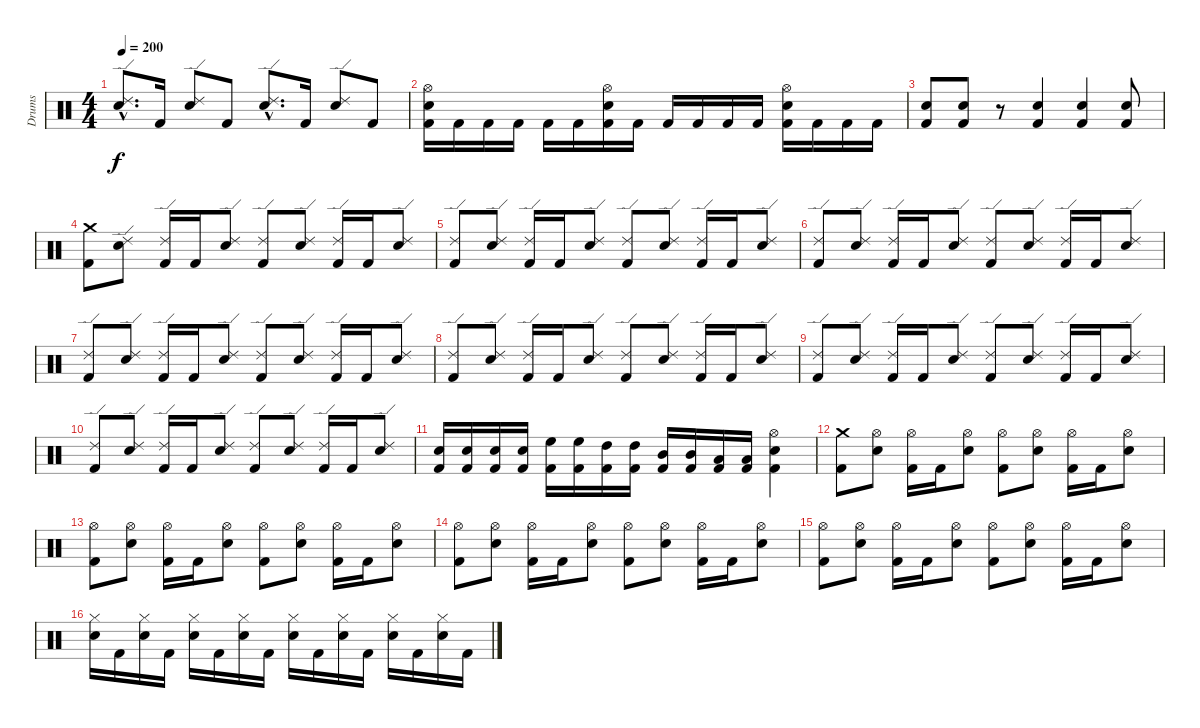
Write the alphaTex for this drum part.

\track ("Drums" "Drums") {instrument percussion}
\staff {score}
\articulation defaults
\ts (4 4)
\tempo 200
\clef neutral
\ks c
("Snare (hit) 2"{hac} "Ride (edge) 2"{hac}).8{d dy f} "Kick (hit) 2".16 ("Snare (hit) 2" "Ride (edge) 2").8 "Kick (hit) 2".8 ("Snare (hit) 2"{hac} "Ride (edge) 2"{hac}).8{d} "Kick (hit) 2".16 ("Snare (hit) 2" "Ride (edge) 2").8 "Kick (hit) 2".8 |
("Kick (hit) 2" "Snare (hit) 2" "Hi-Hat (open)").16 "Kick (hit) 2".16 "Kick (hit) 2".16 "Kick (hit) 2".16 "Kick (hit) 2".16 "Kick (hit) 2".16 ("Kick (hit) 2" "Snare (hit) 2" "Hi-Hat (open)").16 "Kick (hit) 2".16 "Kick (hit) 2".16 "Kick (hit) 2".16 "Kick (hit) 2".16 "Kick (hit) 2".16 ("Kick (hit) 2" "Snare (hit) 2" "Hi-Hat (open)").16 "Kick (hit) 2".16 "Kick (hit) 2".16 "Kick (hit) 2".16 |
("Kick (hit) 2" "Snare (hit) 2").8 ("Kick (hit) 2" "Snare (hit) 2").8 r.8 ("Kick (hit) 2" "Snare (hit) 2").4 ("Kick (hit) 2" "Snare (hit) 2").4 ("Kick (hit) 2" "Snare (hit) 2").8 |
\section ("" "")
("Kick (hit) 2" "Crash medium (hit)").8 ("Snare (hit) 2" "Ride (edge) 2").8 ("Kick (hit) 2" "Ride (edge) 2").16 "Kick (hit) 2".16 ("Snare (hit) 2" "Ride (edge) 2").8 ("Kick (hit) 2" "Ride (edge) 2").8 ("Snare (hit) 2" "Ride (edge) 2").8 ("Kick (hit) 2" "Ride (edge) 2").16 "Kick (hit) 2".16 ("Snare (hit) 2" "Ride (edge) 2").8 |
("Kick (hit) 2" "Ride (edge) 2").8 ("Snare (hit) 2" "Ride (edge) 2").8 ("Kick (hit) 2" "Ride (edge) 2").16 "Kick (hit) 2".16 ("Snare (hit) 2" "Ride (edge) 2").8 ("Kick (hit) 2" "Ride (edge) 2").8 ("Snare (hit) 2" "Ride (edge) 2").8 ("Kick (hit) 2" "Ride (edge) 2").16 "Kick (hit) 2".16 ("Snare (hit) 2" "Ride (edge) 2").8 |
("Kick (hit) 2" "Ride (edge) 2").8 ("Snare (hit) 2" "Ride (edge) 2").8 ("Kick (hit) 2" "Ride (edge) 2").16 "Kick (hit) 2".16 ("Snare (hit) 2" "Ride (edge) 2").8 ("Kick (hit) 2" "Ride (edge) 2").8 ("Snare (hit) 2" "Ride (edge) 2").8 ("Kick (hit) 2" "Ride (edge) 2").16 "Kick (hit) 2".16 ("Snare (hit) 2" "Ride (edge) 2").8 |
("Kick (hit) 2" "Ride (edge) 2").8 ("Snare (hit) 2" "Ride (edge) 2").8 ("Kick (hit) 2" "Ride (edge) 2").16 "Kick (hit) 2".16 ("Snare (hit) 2" "Ride (edge) 2").8 ("Kick (hit) 2" "Ride (edge) 2").8 ("Snare (hit) 2" "Ride (edge) 2").8 ("Kick (hit) 2" "Ride (edge) 2").16 "Kick (hit) 2".16 ("Snare (hit) 2" "Ride (edge) 2").8 |
("Kick (hit) 2" "Ride (edge) 2").8 ("Snare (hit) 2" "Ride (edge) 2").8 ("Kick (hit) 2" "Ride (edge) 2").16 "Kick (hit) 2".16 ("Snare (hit) 2" "Ride (edge) 2").8 ("Kick (hit) 2" "Ride (edge) 2").8 ("Snare (hit) 2" "Ride (edge) 2").8 ("Kick (hit) 2" "Ride (edge) 2").16 "Kick (hit) 2".16 ("Snare (hit) 2" "Ride (edge) 2").8 |
("Kick (hit) 2" "Ride (edge) 2").8 ("Snare (hit) 2" "Ride (edge) 2").8 ("Kick (hit) 2" "Ride (edge) 2").16 "Kick (hit) 2".16 ("Snare (hit) 2" "Ride (edge) 2").8 ("Kick (hit) 2" "Ride (edge) 2").8 ("Snare (hit) 2" "Ride (edge) 2").8 ("Kick (hit) 2" "Ride (edge) 2").16 "Kick (hit) 2".16 ("Snare (hit) 2" "Ride (edge) 2").8 |
("Kick (hit) 2" "Ride (edge) 2").8 ("Snare (hit) 2" "Ride (edge) 2").8 ("Kick (hit) 2" "Ride (edge) 2").16 "Kick (hit) 2".16 ("Snare (hit) 2" "Ride (edge) 2").8 ("Kick (hit) 2" "Ride (edge) 2").8 ("Snare (hit) 2" "Ride (edge) 2").8 ("Kick (hit) 2" "Ride (edge) 2").16 "Kick (hit) 2".16 ("Snare (hit) 2" "Ride (edge) 2").8 |
("Kick (hit) 2" "Snare (hit) 2").16 ("Kick (hit) 2" "Snare (hit) 2").16 ("Kick (hit) 2" "Snare (hit) 2").16 ("Kick (hit) 2" "Snare (hit) 2").16 ("Kick (hit) 2" "High Floor Tom (hit)").16 ("Kick (hit) 2" "High Floor Tom (hit)").16 ("Kick (hit) 2" "High Tom (hit)").16 ("Kick (hit) 2" "High Tom (hit)").16 ("Kick (hit) 2" "Mid Tom (hit)").16 ("Kick (hit) 2" "Mid Tom (hit)").16 ("Kick (hit) 2" "Low Tom (hit)").16 ("Kick (hit) 2" "Low Tom (hit)").16 ("Kick (hit) 2" "Snare (hit) 2" "Hi-Hat (open)").4 |
("Kick (hit) 2" "Crash medium (hit)").8 ("Snare (hit) 2" "Hi-Hat (open)").8 ("Kick (hit) 2" "Hi-Hat (open)").16 "Kick (hit) 2".16 ("Snare (hit) 2" "Hi-Hat (open)").8 ("Kick (hit) 2" "Hi-Hat (open)").8 ("Snare (hit) 2" "Hi-Hat (open)").8 ("Kick (hit) 2" "Hi-Hat (open)").16 "Kick (hit) 2".16 ("Snare (hit) 2" "Hi-Hat (open)").8 |
("Kick (hit) 2" "Hi-Hat (open)").8 ("Snare (hit) 2" "Hi-Hat (open)").8 ("Kick (hit) 2" "Hi-Hat (open)").16 "Kick (hit) 2".16 ("Snare (hit) 2" "Hi-Hat (open)").8 ("Kick (hit) 2" "Hi-Hat (open)").8 ("Snare (hit) 2" "Hi-Hat (open)").8 ("Kick (hit) 2" "Hi-Hat (open)").16 "Kick (hit) 2".16 ("Snare (hit) 2" "Hi-Hat (open)").8 |
("Kick (hit) 2" "Hi-Hat (open)").8 ("Snare (hit) 2" "Hi-Hat (open)").8 ("Kick (hit) 2" "Hi-Hat (open)").16 "Kick (hit) 2".16 ("Snare (hit) 2" "Hi-Hat (open)").8 ("Kick (hit) 2" "Hi-Hat (open)").8 ("Snare (hit) 2" "Hi-Hat (open)").8 ("Kick (hit) 2" "Hi-Hat (open)").16 "Kick (hit) 2".16 ("Snare (hit) 2" "Hi-Hat (open)").8 |
("Kick (hit) 2" "Hi-Hat (open)").8 ("Snare (hit) 2" "Hi-Hat (open)").8 ("Kick (hit) 2" "Hi-Hat (open)").16 "Kick (hit) 2".16 ("Snare (hit) 2" "Hi-Hat (open)").8 ("Kick (hit) 2" "Hi-Hat (open)").8 ("Snare (hit) 2" "Hi-Hat (open)").8 ("Kick (hit) 2" "Hi-Hat (open)").16 "Kick (hit) 2".16 ("Snare (hit) 2" "Hi-Hat (open)").8 |
("Snare (hit) 2" "Hi-Hat (closed)").16 "Kick (hit) 2".16 ("Snare (hit) 2" "Hi-Hat (closed)").16 "Kick (hit) 2".16 ("Snare (hit) 2" "Hi-Hat (closed)").16 "Kick (hit) 2".16 ("Snare (hit) 2" "Hi-Hat (closed)").16 "Kick (hit) 2".16 ("Snare (hit) 2" "Hi-Hat (closed)").16 "Kick (hit) 2".16 ("Snare (hit) 2" "Hi-Hat (closed)").16 "Kick (hit) 2".16 ("Snare (hit) 2" "Hi-Hat (closed)").16 "Kick (hit) 2".16 ("Snare (hit) 2" "Hi-Hat (closed)").16 "Kick (hit) 2".16
